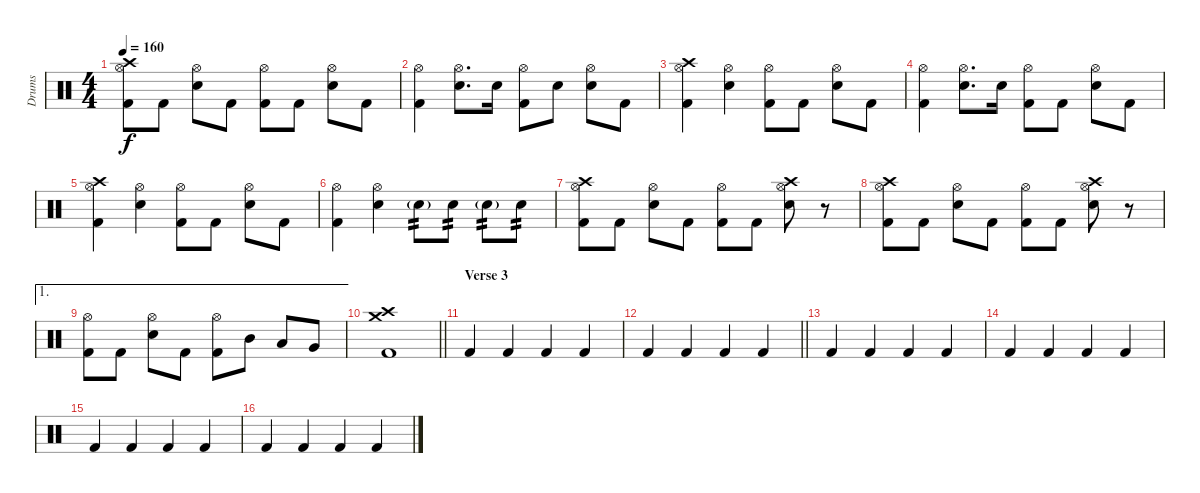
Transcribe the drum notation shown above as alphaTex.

\track ("Drums" "Drums") {instrument percussion}
\staff {score}
\articulation defaults
\ts (4 4)
\tempo 160
\clef neutral
\ks c
("Crash high (hit)" "Hi-Hat (open)" "Kick (hit) 2").8{dy f} "Kick (hit) 2".8 ("Hi-Hat (open)" "Electric Snare (hit)").8 "Kick (hit) 2".8 ("Hi-Hat (open)" "Kick (hit) 2").8 "Kick (hit) 2".8 ("Hi-Hat (open)" "Electric Snare (hit)").8 "Kick (hit) 2".8 |
("Hi-Hat (open)" "Kick (hit) 2").4 ("Hi-Hat (open)" "Electric Snare (hit)").8{d} "Electric Snare (hit)".16 ("Hi-Hat (open)" "Kick (hit) 2").8 "Electric Snare (hit)".8 ("Hi-Hat (open)" "Electric Snare (hit)").8 "Kick (hit) 2".8 |
("Crash high (hit)" "Hi-Hat (open)" "Kick (hit) 2").4 ("Hi-Hat (open)" "Electric Snare (hit)").4 ("Hi-Hat (open)" "Kick (hit) 2").8 "Kick (hit) 2".8 ("Hi-Hat (open)" "Electric Snare (hit)").8 "Kick (hit) 2".8 |
("Hi-Hat (open)" "Kick (hit) 2").4 ("Hi-Hat (open)" "Electric Snare (hit)").8{d} "Electric Snare (hit)".16 ("Hi-Hat (open)" "Kick (hit) 2").8 "Kick (hit) 2".8 ("Hi-Hat (open)" "Electric Snare (hit)").8 "Kick (hit) 2".8 |
("Crash high (hit)" "Hi-Hat (open)" "Kick (hit) 2").4 ("Hi-Hat (open)" "Electric Snare (hit)").4 ("Hi-Hat (open)" "Kick (hit) 2").8 "Kick (hit) 2".8 ("Hi-Hat (open)" "Electric Snare (hit)").8 "Kick (hit) 2".8 |
("Hi-Hat (open)" "Kick (hit) 2").4 ("Hi-Hat (open)" "Electric Snare (hit)").4 "Electric Snare (hit)"{g}.8{tp 2} "Electric Snare (hit)".8{tp 2} "Electric Snare (hit)"{g}.8{tp 2} "Electric Snare (hit)".8{tp 2} |
("Crash high (hit)" "Hi-Hat (open)" "Kick (hit) 2").8 "Kick (hit) 2".8 ("Hi-Hat (open)" "Electric Snare (hit)").8 "Kick (hit) 2".8 ("Hi-Hat (open)" "Kick (hit) 2").8 "Kick (hit) 2".8 ("Crash high (hit)" "Hi-Hat (open)" "Electric Snare (hit)").8 r.8 |
("Crash high (hit)" "Hi-Hat (open)" "Kick (hit) 2").8 "Kick (hit) 2".8 ("Hi-Hat (open)" "Electric Snare (hit)").8 "Kick (hit) 2".8 ("Hi-Hat (open)" "Kick (hit) 2").8 "Kick (hit) 2".8 ("Crash high (hit)" "Hi-Hat (open)" "Electric Snare (hit)").8 r.8 |
\ae 1
("Hi-Hat (open)" "Kick (hit) 2").8 "Kick (hit) 2".8 ("Hi-Hat (open)" "Electric Snare (hit)").8 "Kick (hit) 2".8 ("Hi-Hat (open)" "Kick (hit) 2").8 "Mid Tom (hit)".8 "Low Tom (hit)".8 "Very Low Tom (hit)".8 |
\barLineRight lightlight
("Crash high (hit)" "Crash medium (hit)" "Kick (hit) 2").1 |
\section ("" "Verse 3")
"Kick (hit) 2".4 "Kick (hit) 2".4 "Kick (hit) 2".4 "Kick (hit) 2".4 |
\barLineRight lightlight "Kick (hit) 2".4 "Kick (hit) 2".4 "Kick (hit) 2".4 "Kick (hit) 2".4
|
"Kick (hit) 2".4 "Kick (hit) 2".4 "Kick (hit) 2".4 "Kick (hit) 2".4 |
"Kick (hit) 2".4 "Kick (hit) 2".4 "Kick (hit) 2".4 "Kick (hit) 2".4 |
"Kick (hit) 2".4 "Kick (hit) 2".4 "Kick (hit) 2".4 "Kick (hit) 2".4 |
"Kick (hit) 2".4 "Kick (hit) 2".4 "Kick (hit) 2".4 "Kick (hit) 2".4
